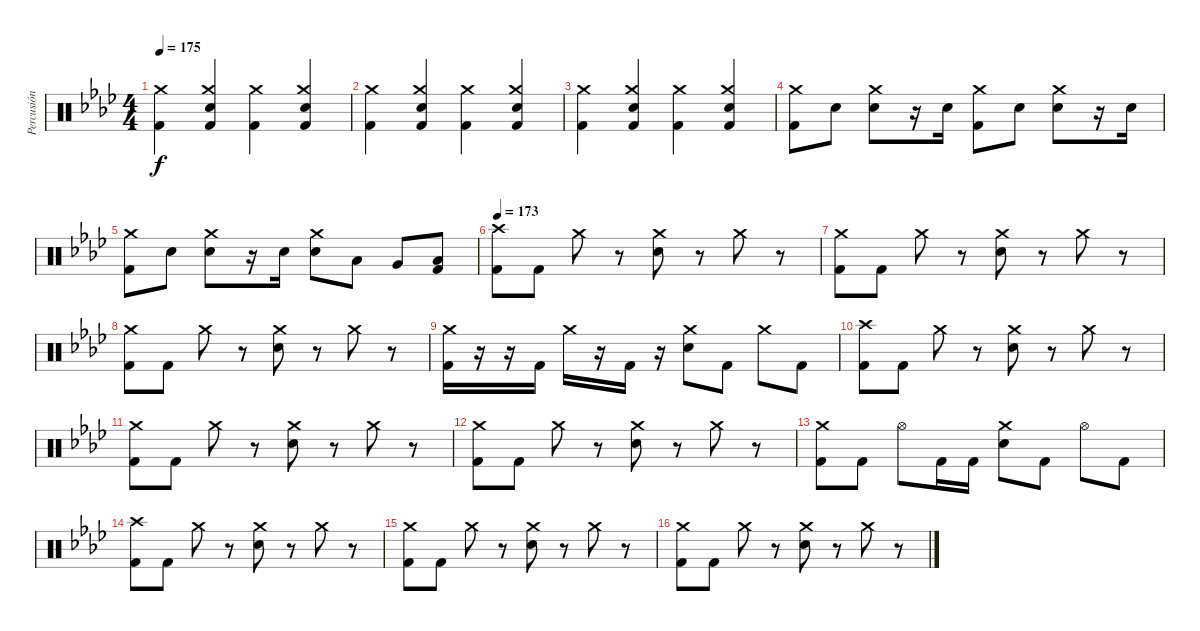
\track ("Percusión" "Percusión") {instrument percussion}
\staff {score}
\articulation defaults
\ts (4 4)
\tempo 175
\clef neutral
\ks fminor
("Kick (hit) 2" "Crash medium (hit)").4{dy f} ("Kick (hit) 2" "Snare (hit) 2" "Crash medium (hit)").4 ("Kick (hit) 2" "Crash medium (hit)").4 ("Kick (hit) 2" "Snare (hit) 2" "Crash medium (hit)").4 |
("Kick (hit) 2" "Crash medium (hit)").4 ("Kick (hit) 2" "Snare (hit) 2" "Crash medium (hit)").4 ("Kick (hit) 2" "Crash medium (hit)").4 ("Kick (hit) 2" "Snare (hit) 2" "Crash medium (hit)").4 |
("Kick (hit) 2" "Crash medium (hit)").4 ("Kick (hit) 2" "Snare (hit) 2" "Crash medium (hit)").4 ("Kick (hit) 2" "Crash medium (hit)").4 ("Kick (hit) 2" "Snare (hit) 2" "Crash medium (hit)").4 |
("Kick (hit) 2" "Crash medium (hit)").8 "Snare (hit) 2".8 ("Snare (hit) 2" "Crash medium (hit)").8 r.16 "Snare (hit) 2".16 ("Kick (hit) 2" "Crash medium (hit)").8 "Snare (hit) 2".8 ("Snare (hit) 2" "Crash medium (hit)").8 r.16 "Snare (hit) 2".16 |
("Kick (hit) 2" "Crash medium (hit)").8 "Snare (hit) 2".8 ("Snare (hit) 2" "Crash medium (hit)").8 r.16 "Snare (hit) 2".16 ("Snare (hit) 2" "Crash medium (hit)").8 "Low Tom (hit)".8 "Very Low Tom (hit)".8 ("Kick (hit) 2" "Low Floor Tom (hit)").8 |
\tempo 173
("Kick (hit) 2" "Crash high (hit)").8 "Kick (hit) 2".8 "Crash medium (hit)".8 r.8 ("Snare (hit) 2" "Crash medium (hit)").8 r.8 "Crash medium (hit)".8 r.8 |
("Kick (hit) 2" "Crash medium (hit)").8 "Kick (hit) 2".8 "Crash medium (hit)".8 r.8 ("Snare (hit) 2" "Crash medium (hit)").8 r.8 "Crash medium (hit)".8 r.8 |
("Kick (hit) 2" "Crash medium (hit)").8 "Kick (hit) 2".8 "Crash medium (hit)".8 r.8 ("Snare (hit) 2" "Crash medium (hit)").8 r.8 "Crash medium (hit)".8 r.8 |
("Kick (hit) 2" "Crash medium (hit)").16 r.16 r.16 "Kick (hit) 2".16 "Crash medium (hit)".16 r.16 "Kick (hit) 2".16 r.16 ("Snare (hit) 2" "Crash medium (hit)").8 "Kick (hit) 2".8 "Crash medium (hit)".8 "Kick (hit) 2".8 |
("Kick (hit) 2" "Crash high (hit)").8 "Kick (hit) 2".8 "Crash medium (hit)".8 r.8 ("Snare (hit) 2" "Crash medium (hit)").8 r.8 "Crash medium (hit)".8 r.8 |
("Kick (hit) 2" "Crash medium (hit)").8 "Kick (hit) 2".8 "Crash medium (hit)".8 r.8 ("Snare (hit) 2" "Crash medium (hit)").8 r.8 "Crash medium (hit)".8 r.8 |
("Kick (hit) 2" "Crash medium (hit)").8 "Kick (hit) 2".8 "Crash medium (hit)".8 r.8 ("Snare (hit) 2" "Crash medium (hit)").8 r.8 "Crash medium (hit)".8 r.8 |
("Kick (hit) 2" "Crash medium (hit)").8 "Kick (hit) 2".8 "Hi-Hat (open)".8 "Kick (hit) 2".16 "Kick (hit) 2".16 ("Snare (hit) 2" "Crash medium (hit)").8 "Kick (hit) 2".8 "Hi-Hat (open)".8 "Kick (hit) 2".8 |
("Kick (hit) 2" "Crash high (hit)").8 "Kick (hit) 2".8 "Crash medium (hit)".8 r.8 ("Snare (hit) 2" "Crash medium (hit)").8 r.8 "Crash medium (hit)".8 r.8 |
("Kick (hit) 2" "Crash medium (hit)").8 "Kick (hit) 2".8 "Crash medium (hit)".8 r.8 ("Snare (hit) 2" "Crash medium (hit)").8 r.8 "Crash medium (hit)".8 r.8 |
("Kick (hit) 2" "Crash medium (hit)").8 "Kick (hit) 2".8 "Crash medium (hit)".8 r.8 ("Snare (hit) 2" "Crash medium (hit)").8 r.8 "Crash medium (hit)".8 r.8
